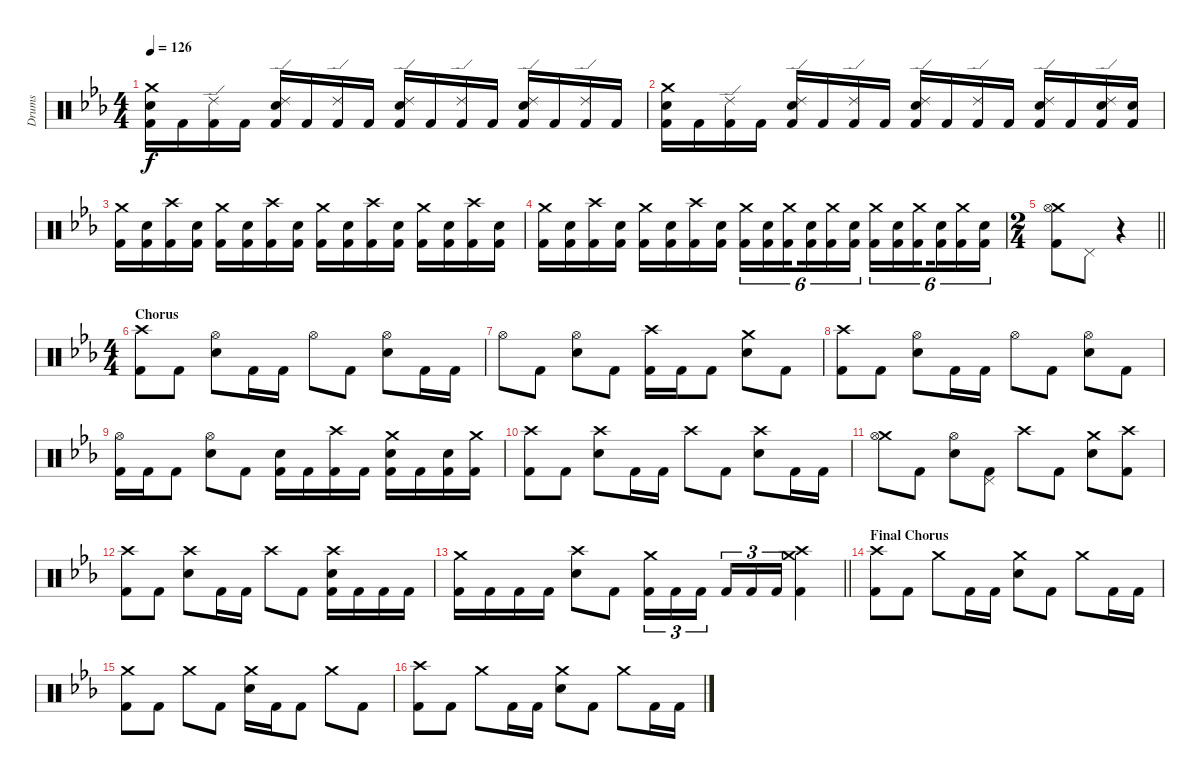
\track ("Drums" "Drums") {instrument percussion}
\staff {score}
\articulation defaults
\ts (4 4)
\tempo 126
\clef neutral
\ks cminor
("Crash medium (hit)" "Snare (hit) 2" "Kick (hit) 2").16{dy f} "Kick (hit) 2".16 ("Ride (edge) 2" "Kick (hit) 2").16 "Kick (hit) 2".16 ("Ride (edge) 2" "Snare (hit) 2" "Kick (hit) 2").16 "Kick (hit) 2".16 ("Ride (edge) 2" "Kick (hit) 2").16 "Kick (hit) 2".16 ("Ride (edge) 2" "Snare (hit) 2" "Kick (hit) 2").16 "Kick (hit) 2".16 ("Ride (edge) 2" "Kick (hit) 2").16 "Kick (hit) 2".16 ("Ride (edge) 2" "Snare (hit) 2" "Kick (hit) 2").16 "Kick (hit) 2".16 ("Ride (edge) 2" "Kick (hit) 2").16 "Kick (hit) 2".16 |
("Crash medium (hit)" "Snare (hit) 2" "Kick (hit) 2").16 "Kick (hit) 2".16 ("Ride (edge) 2" "Kick (hit) 2").16 "Kick (hit) 2".16 ("Ride (edge) 2" "Snare (hit) 2" "Kick (hit) 2").16 "Kick (hit) 2".16 ("Ride (edge) 2" "Kick (hit) 2").16 "Kick (hit) 2".16 ("Ride (edge) 2" "Snare (hit) 2" "Kick (hit) 2").16 "Kick (hit) 2".16 ("Ride (edge) 2" "Kick (hit) 2").16 "Kick (hit) 2".16 ("Ride (edge) 2" "Snare (hit) 2" "Kick (hit) 2").16 "Kick (hit) 2".16 ("Ride (edge) 2" "Snare (hit) 2" "Kick (hit) 2").16 ("Snare (hit) 2" "Kick (hit) 2").16 |
("Crash medium (hit)" "Kick (hit) 2").16 ("Snare (hit) 2" "Kick (hit) 2").16 ("Crash high (hit)" "Kick (hit) 2").16 ("Snare (hit) 2" "Kick (hit) 2").16 ("Crash medium (hit)" "Kick (hit) 2").16 ("Snare (hit) 2" "Kick (hit) 2").16 ("Crash high (hit)" "Kick (hit) 2").16 ("Snare (hit) 2" "Kick (hit) 2").16 ("Crash medium (hit)" "Kick (hit) 2").16 ("Snare (hit) 2" "Kick (hit) 2").16 ("Crash high (hit)" "Kick (hit) 2").16 ("Snare (hit) 2" "Kick (hit) 2").16 ("Crash medium (hit)" "Kick (hit) 2").16 ("Snare (hit) 2" "Kick (hit) 2").16 ("Crash high (hit)" "Kick (hit) 2").16 ("Snare (hit) 2" "Kick (hit) 2").16 |
("Crash medium (hit)" "Kick (hit) 2").16 ("Snare (hit) 2" "Kick (hit) 2").16 ("Crash high (hit)" "Kick (hit) 2").16 ("Snare (hit) 2" "Kick (hit) 2").16 ("Crash medium (hit)" "Kick (hit) 2").16 ("Snare (hit) 2" "Kick (hit) 2").16 ("Crash high (hit)" "Kick (hit) 2").16 ("Snare (hit) 2" "Kick (hit) 2").16 ("Crash medium (hit)" "Kick (hit) 2").16{tu (6 4)} ("Snare (hit) 2" "Kick (hit) 2").16{tu (6 4)} ("Crash medium (hit)" "Kick (hit) 2").16{tu (6 4) beam splitsecondary} ("Snare (hit) 2" "Kick (hit) 2").16{tu (6 4)} ("Crash medium (hit)" "Kick (hit) 2").16{tu (6 4)} ("Snare (hit) 2" "Kick (hit) 2").16{tu (6 4)} ("Crash medium (hit)" "Kick (hit) 2").16{tu (6 4)} ("Snare (hit) 2" "Kick (hit) 2").16{tu (6 4)} ("Crash medium (hit)" "Kick (hit) 2").16{tu (6 4) beam splitsecondary} ("Snare (hit) 2" "Kick (hit) 2").16{tu (6 4)} ("Crash medium (hit)" "Kick (hit) 2").16{tu (6 4)} ("Snare (hit) 2" "Kick (hit) 2").16{tu (6 4)} |
\ts (2 4)
\barLineRight lightlight
("Crash medium (hit)" "Hi-Hat (open)" "Kick (hit) 2").8 "Pedal Hi-Hat (hit)".8 r.4 |
\ts (4 4)
\section ("" "Chorus")
("Crash high (hit)" "Kick (hit) 2").8 "Kick (hit) 2".8 ("Hi-Hat (open)" "Snare (hit) 2").8 "Kick (hit) 2".16 "Kick (hit) 2".16 "Hi-Hat (open)".8 "Kick (hit) 2".8 ("Hi-Hat (open)" "Snare (hit) 2").8 "Kick (hit) 2".16 "Kick (hit) 2".16 |
"Hi-Hat (open)".8 "Kick (hit) 2".8 ("Hi-Hat (open)" "Snare (hit) 2").8 "Kick (hit) 2".8 ("Crash high (hit)" "Kick (hit) 2").16 "Kick (hit) 2".16 "Kick (hit) 2".8 ("Crash medium (hit)" "Snare (hit) 2").8 "Kick (hit) 2".8 |
("Crash high (hit)" "Kick (hit) 2").8 "Kick (hit) 2".8 ("Hi-Hat (open)" "Snare (hit) 2").8 "Kick (hit) 2".16 "Kick (hit) 2".16 "Hi-Hat (open)".8 "Kick (hit) 2".8 ("Hi-Hat (open)" "Snare (hit) 2").8 "Kick (hit) 2".8 |
("Hi-Hat (open)" "Kick (hit) 2").16 "Kick (hit) 2".16 "Kick (hit) 2".8 ("Hi-Hat (open)" "Snare (hit) 2").8 "Kick (hit) 2".8 ("Snare (hit) 2" "Kick (hit) 2").16 "Kick (hit) 2".16 ("Crash high (hit)" "Kick (hit) 2").16 "Kick (hit) 2".16 ("Crash medium (hit)" "Snare (hit) 2" "Kick (hit) 2").16 "Kick (hit) 2".16 ("Snare (hit) 2" "Kick (hit) 2").16 ("Crash medium (hit)" "Kick (hit) 2").16 |
("Crash high (hit)" "Kick (hit) 2").8 "Kick (hit) 2".8 ("Crash high (hit)" "Snare (hit) 2").8 "Kick (hit) 2".16 "Kick (hit) 2".16 "Crash high (hit)".8 "Kick (hit) 2".8 ("Crash high (hit)" "Snare (hit) 2").8 "Kick (hit) 2".16 "Kick (hit) 2".16 |
("Crash medium (hit)" "Hi-Hat (open)").8 "Kick (hit) 2".8 ("Hi-Hat (open)" "Snare (hit) 2").8 ("Pedal Hi-Hat (hit)" "Kick (hit) 2").8 "Crash high (hit)".8 "Kick (hit) 2".8 ("Crash medium (hit)" "Snare (hit) 2").8 ("Crash high (hit)" "Kick (hit) 2").8 |
("Crash high (hit)" "Kick (hit) 2").8 "Kick (hit) 2".8 ("Crash high (hit)" "Snare (hit) 2").8 "Kick (hit) 2".16 "Kick (hit) 2".16 "Crash high (hit)".8 "Kick (hit) 2".8 ("Crash high (hit)" "Snare (hit) 2" "Kick (hit) 2").16 "Kick (hit) 2".16 "Kick (hit) 2".16 "Kick (hit) 2".16 |
\barLineRight lightlight
("Crash medium (hit)" "Kick (hit) 2").16 "Kick (hit) 2".16 "Kick (hit) 2".16 "Kick (hit) 2".16 ("Crash high (hit)" "Snare (hit) 2").8 "Kick (hit) 2".8 ("Crash medium (hit)" "Kick (hit) 2").16{tu (3 2)} "Kick (hit) 2".16{tu (3 2)} "Kick (hit) 2".16{tu (3 2) beam splitsecondary} "Kick (hit) 2".16{tu (3 2)} "Kick (hit) 2".16{tu (3 2)} "Kick (hit) 2".16{tu (3 2)} ("Crash high (hit)" "Crash medium (hit)" "Kick (hit) 2").4 |
\section ("" "Final Chorus")
("Crash high (hit)" "Kick (hit) 2").8 "Kick (hit) 2".8 "Crash medium (hit)".8 "Kick (hit) 2".16 "Kick (hit) 2".16 ("Crash medium (hit)" "Snare (hit) 2").8 "Kick (hit) 2".8 "Crash medium (hit)".8 "Kick (hit) 2".16 "Kick (hit) 2".16 |
("Crash medium (hit)" "Kick (hit) 2").8 "Kick (hit) 2".8 "Crash medium (hit)".8 "Kick (hit) 2".8 ("Crash medium (hit)" "Snare (hit) 2").16 "Kick (hit) 2".16 "Kick (hit) 2".8 "Crash medium (hit)".8 "Kick (hit) 2".8 |
("Crash high (hit)" "Kick (hit) 2").8 "Kick (hit) 2".8 "Crash medium (hit)".8 "Kick (hit) 2".16 "Kick (hit) 2".16 ("Crash medium (hit)" "Snare (hit) 2").8 "Kick (hit) 2".8 "Crash medium (hit)".8 "Kick (hit) 2".16 "Kick (hit) 2".16
